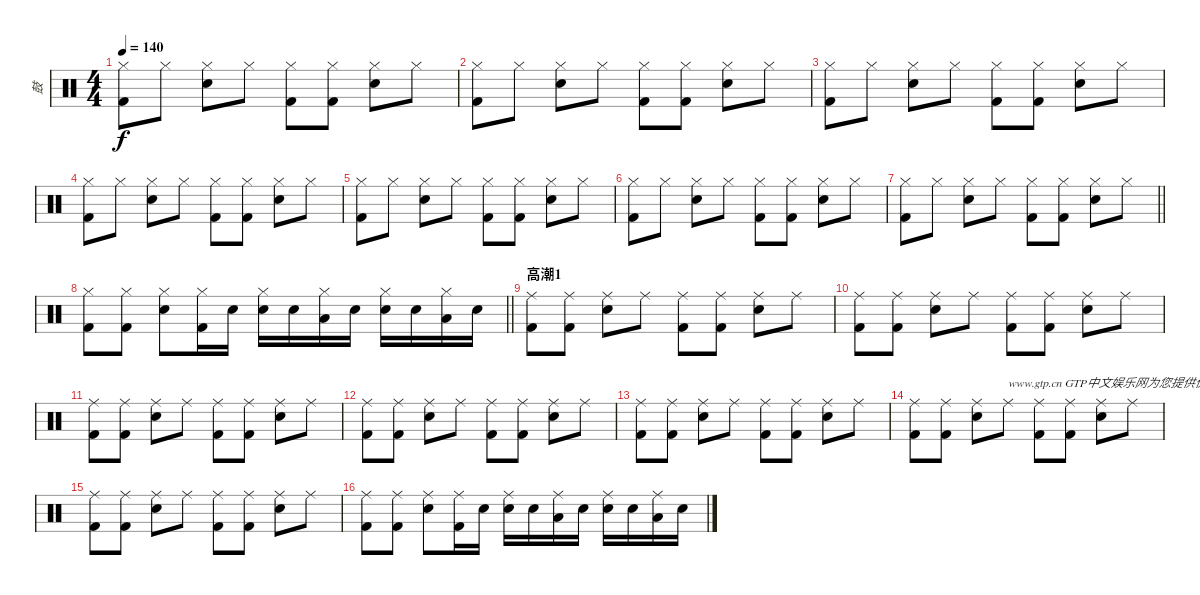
\track ("鼓" "鼓") {instrument percussion}
\staff {score}
\articulation defaults
\ts (4 4)
\tempo 140
\clef neutral
\ks c
("Hi-Hat (closed)" "Kick (hit) 2").8{dy f} "Hi-Hat (closed)".8 ("Hi-Hat (closed)" "Snare (hit) 2").8 "Hi-Hat (closed)".8 ("Hi-Hat (closed)" "Kick (hit) 2").8 ("Hi-Hat (closed)" "Kick (hit) 2").8 ("Hi-Hat (closed)" "Snare (hit) 2").8 "Hi-Hat (closed)".8 |
("Hi-Hat (closed)" "Kick (hit) 2").8 "Hi-Hat (closed)".8 ("Hi-Hat (closed)" "Snare (hit) 2").8 "Hi-Hat (closed)".8 ("Hi-Hat (closed)" "Kick (hit) 2").8 ("Hi-Hat (closed)" "Kick (hit) 2").8 ("Hi-Hat (closed)" "Snare (hit) 2").8 "Hi-Hat (closed)".8 |
("Hi-Hat (closed)" "Kick (hit) 2").8 "Hi-Hat (closed)".8 ("Hi-Hat (closed)" "Snare (hit) 2").8 "Hi-Hat (closed)".8 ("Hi-Hat (closed)" "Kick (hit) 2").8 ("Hi-Hat (closed)" "Kick (hit) 2").8 ("Hi-Hat (closed)" "Snare (hit) 2").8 "Hi-Hat (closed)".8 |
("Hi-Hat (closed)" "Kick (hit) 2").8 "Hi-Hat (closed)".8 ("Hi-Hat (closed)" "Snare (hit) 2").8 "Hi-Hat (closed)".8 ("Hi-Hat (closed)" "Kick (hit) 2").8 ("Hi-Hat (closed)" "Kick (hit) 2").8 ("Hi-Hat (closed)" "Snare (hit) 2").8 "Hi-Hat (closed)".8 |
("Hi-Hat (closed)" "Kick (hit) 2").8 "Hi-Hat (closed)".8 ("Hi-Hat (closed)" "Snare (hit) 2").8 "Hi-Hat (closed)".8 ("Hi-Hat (closed)" "Kick (hit) 2").8 ("Hi-Hat (closed)" "Kick (hit) 2").8 ("Hi-Hat (closed)" "Snare (hit) 2").8 "Hi-Hat (closed)".8 |
("Hi-Hat (closed)" "Kick (hit) 2").8 "Hi-Hat (closed)".8 ("Hi-Hat (closed)" "Snare (hit) 2").8 "Hi-Hat (closed)".8 ("Hi-Hat (closed)" "Kick (hit) 2").8 ("Hi-Hat (closed)" "Kick (hit) 2").8 ("Hi-Hat (closed)" "Snare (hit) 2").8 "Hi-Hat (closed)".8 |
\barLineRight lightlight
("Hi-Hat (closed)" "Kick (hit) 2").8 "Hi-Hat (closed)".8 ("Hi-Hat (closed)" "Snare (hit) 2").8 "Hi-Hat (closed)".8 ("Hi-Hat (closed)" "Kick (hit) 2").8 ("Hi-Hat (closed)" "Kick (hit) 2").8 ("Hi-Hat (closed)" "Snare (hit) 2").8 "Hi-Hat (closed)".8 |
\section ("" "")
\barLineRight lightlight
("Hi-Hat (closed)" "Kick (hit) 2").8 ("Hi-Hat (closed)" "Kick (hit) 2").8 ("Hi-Hat (closed)" "Snare (hit) 2").8 ("Hi-Hat (closed)" "Kick (hit) 2").16 "Snare (hit) 2".16 ("Hi-Hat (closed)" "Snare (hit) 2").16 "Snare (hit) 2".16 ("Hi-Hat (closed)" "Low Tom (hit)").16 "Snare (hit) 2".16 ("Hi-Hat (closed)" "Snare (hit) 2").16 "Snare (hit) 2".16 ("Hi-Hat (closed)" "Low Tom (hit)").16 "Snare (hit) 2".16 |
\section ("" "高潮1")
("Ride (middle)" "Kick (hit) 2").8 ("Ride (middle)" "Kick (hit) 2").8 ("Ride (middle)" "Snare (hit) 2").8 "Ride (middle)".8 ("Ride (middle)" "Kick (hit) 2").8 ("Ride (middle)" "Kick (hit) 2").8 ("Ride (middle)" "Snare (hit) 2").8 "Ride (middle)".8 |
("Ride (middle)" "Kick (hit) 2").8 ("Ride (middle)" "Kick (hit) 2").8 ("Ride (middle)" "Snare (hit) 2").8 "Ride (middle)".8 ("Ride (middle)" "Kick (hit) 2").8 ("Ride (middle)" "Kick (hit) 2").8 ("Ride (middle)" "Snare (hit) 2").8 "Ride (middle)".8 |
("Ride (middle)" "Kick (hit) 2").8 ("Ride (middle)" "Kick (hit) 2").8 ("Ride (middle)" "Snare (hit) 2").8 "Ride (middle)".8 ("Ride (middle)" "Kick (hit) 2").8 ("Ride (middle)" "Kick (hit) 2").8 ("Ride (middle)" "Snare (hit) 2").8 "Ride (middle)".8 |
("Ride (middle)" "Kick (hit) 2").8 ("Ride (middle)" "Kick (hit) 2").8 ("Ride (middle)" "Snare (hit) 2").8 "Ride (middle)".8 ("Ride (middle)" "Kick (hit) 2").8 ("Ride (middle)" "Kick (hit) 2").8 ("Ride (middle)" "Snare (hit) 2").8 "Ride (middle)".8 |
("Ride (middle)" "Kick (hit) 2").8 ("Ride (middle)" "Kick (hit) 2").8 ("Ride (middle)" "Snare (hit) 2").8 "Ride (middle)".8 ("Ride (middle)" "Kick (hit) 2").8 ("Ride (middle)" "Kick (hit) 2").8 ("Ride (middle)" "Snare (hit) 2").8 "Ride (middle)".8 |
("Ride (middle)" "Kick (hit) 2").8 ("Ride (middle)" "Kick (hit) 2").8 ("Ride (middle)" "Snare (hit) 2").8 "Ride (middle)".8{txt "www.gtp.cn GTP中文娱乐网为您提供优秀的谱子"} ("Ride (middle)" "Kick (hit) 2").8 ("Ride (middle)" "Kick (hit) 2").8 ("Ride (middle)" "Snare (hit) 2").8 "Ride (middle)".8 |
("Ride (middle)" "Kick (hit) 2").8 ("Ride (middle)" "Kick (hit) 2").8 ("Ride (middle)" "Snare (hit) 2").8 "Ride (middle)".8 ("Ride (middle)" "Kick (hit) 2").8 ("Ride (middle)" "Kick (hit) 2").8 ("Ride (middle)" "Snare (hit) 2").8 "Ride (middle)".8 |
("Ride (middle)" "Kick (hit) 2").8 ("Ride (middle)" "Kick (hit) 2").8 ("Ride (middle)" "Snare (hit) 2").8 ("Ride (middle)" "Kick (hit) 2").16 "Snare (hit) 2".16 ("Ride (middle)" "Snare (hit) 2").16 "Snare (hit) 2".16 ("Ride (middle)" "Low Tom (hit)").16 "Snare (hit) 2".16 ("Ride (middle)" "Snare (hit) 2").16 "Snare (hit) 2".16 ("Ride (middle)" "Low Tom (hit)").16 "Snare (hit) 2".16
